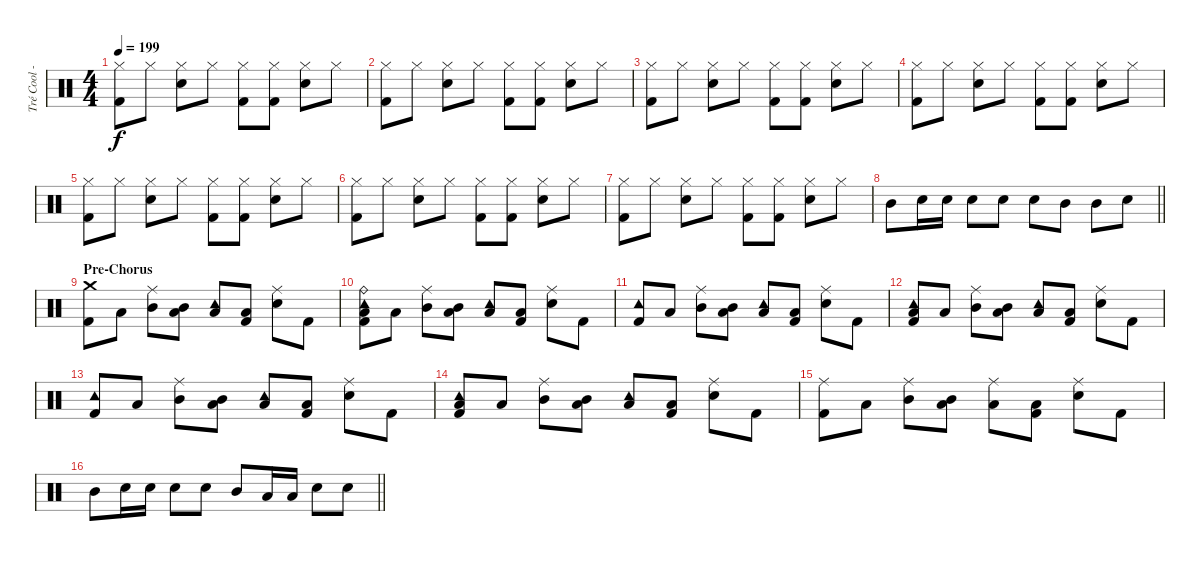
\track ("Tré Cool - Drums" "Tré Cool -") {instrument percussion}
\staff {score}
\articulation defaults
\ts (4 4)
\tempo 199
\clef neutral
\ks c
("Hi-Hat (closed)" "Kick (hit) 2").8{dy f} "Hi-Hat (closed)".8 ("Hi-Hat (closed)" "Electric Snare (hit)").8 "Hi-Hat (closed)".8 ("Hi-Hat (closed)" "Kick (hit) 2").8 ("Hi-Hat (closed)" "Kick (hit) 2").8 ("Hi-Hat (closed)" "Electric Snare (hit)").8 "Hi-Hat (closed)".8 |
("Hi-Hat (closed)" "Kick (hit) 2").8 "Hi-Hat (closed)".8 ("Hi-Hat (closed)" "Electric Snare (hit)").8 "Hi-Hat (closed)".8 ("Hi-Hat (closed)" "Kick (hit) 2").8 ("Hi-Hat (closed)" "Kick (hit) 2").8 ("Hi-Hat (closed)" "Electric Snare (hit)").8 "Hi-Hat (closed)".8 |
("Hi-Hat (closed)" "Kick (hit) 2").8 "Hi-Hat (closed)".8 ("Hi-Hat (closed)" "Electric Snare (hit)").8 "Hi-Hat (closed)".8 ("Hi-Hat (closed)" "Kick (hit) 2").8 ("Hi-Hat (closed)" "Kick (hit) 2").8 ("Hi-Hat (closed)" "Electric Snare (hit)").8 "Hi-Hat (closed)".8 |
("Hi-Hat (closed)" "Kick (hit) 2").8 "Hi-Hat (closed)".8 ("Hi-Hat (closed)" "Electric Snare (hit)").8 "Hi-Hat (closed)".8 ("Hi-Hat (closed)" "Kick (hit) 2").8 ("Hi-Hat (closed)" "Kick (hit) 2").8 ("Hi-Hat (closed)" "Electric Snare (hit)").8 "Hi-Hat (closed)".8 |
("Hi-Hat (closed)" "Kick (hit) 2").8 "Hi-Hat (closed)".8 ("Hi-Hat (closed)" "Electric Snare (hit)").8 "Hi-Hat (closed)".8 ("Hi-Hat (closed)" "Kick (hit) 2").8 ("Hi-Hat (closed)" "Kick (hit) 2").8 ("Hi-Hat (closed)" "Electric Snare (hit)").8 "Hi-Hat (closed)".8 |
("Hi-Hat (closed)" "Kick (hit) 2").8 "Hi-Hat (closed)".8 ("Hi-Hat (closed)" "Electric Snare (hit)").8 "Hi-Hat (closed)".8 ("Hi-Hat (closed)" "Kick (hit) 2").8 ("Hi-Hat (closed)" "Kick (hit) 2").8 ("Hi-Hat (closed)" "Electric Snare (hit)").8 "Hi-Hat (closed)".8 |
("Hi-Hat (closed)" "Kick (hit) 2").8 "Hi-Hat (closed)".8 ("Hi-Hat (closed)" "Electric Snare (hit)").8 "Hi-Hat (closed)".8 ("Hi-Hat (closed)" "Kick (hit) 2").8 ("Hi-Hat (closed)" "Kick (hit) 2").8 ("Hi-Hat (closed)" "Electric Snare (hit)").8 "Hi-Hat (closed)".8 |
\barLineRight lightlight "Mid Tom (hit)".8 "Electric Snare (hit)".16 "Electric Snare (hit)".16 "Electric Snare (hit)".8 "Electric Snare (hit)".8 "Electric Snare (hit)".8 "Mid Tom (hit)".8 "Mid Tom (hit)".8 "Electric Snare (hit)".8
|
\section ("" "Pre-Chorus")
("Crash medium (hit)" "Kick (hit) 2").8 "Low Floor Tom (hit)".8 ("Ride (middle)" "Mid Tom (hit)").8 ("Mid Tom (hit)" "Low Floor Tom (hit)").8 ("Tambourine (hit)" "Low Tom (hit)").8 ("Low Floor Tom (hit)" "Kick (hit) 2").8 ("Ride (middle)" "Electric Snare (hit)").8 "Kick (hit) 2".8 |
("Tambourine (hit)" "Ride (bell)" "Low Floor Tom (hit)" "Kick (hit) 2").8 "Low Floor Tom (hit)".8 ("Ride (middle)" "Mid Tom (hit)").8 ("Mid Tom (hit)" "Low Floor Tom (hit)").8 ("Tambourine (hit)" "Low Tom (hit)").8 ("Low Floor Tom (hit)" "Kick (hit) 2").8 ("Ride (middle)" "Electric Snare (hit)").8 "Kick (hit) 2".8 |
("Tambourine (hit)" "Kick (hit) 2").8 "Low Floor Tom (hit)".8 ("Ride (middle)" "Mid Tom (hit)").8 ("Mid Tom (hit)" "Low Floor Tom (hit)").8 ("Tambourine (hit)" "Low Tom (hit)").8 ("Low Floor Tom (hit)" "Kick (hit) 2").8 ("Ride (middle)" "Electric Snare (hit)").8 "Kick (hit) 2".8 |
("Tambourine (hit)" "Low Floor Tom (hit)" "Kick (hit) 2").8 "Low Floor Tom (hit)".8 ("Ride (middle)" "Mid Tom (hit)").8 ("Mid Tom (hit)" "Low Floor Tom (hit)").8 ("Tambourine (hit)" "Low Tom (hit)").8 ("Low Floor Tom (hit)" "Kick (hit) 2").8 ("Ride (middle)" "Electric Snare (hit)").8 "Kick (hit) 2".8 |
("Tambourine (hit)" "Kick (hit) 2").8 "Low Floor Tom (hit)".8 ("Ride (middle)" "Mid Tom (hit)").8 ("Mid Tom (hit)" "Low Floor Tom (hit)").8 ("Tambourine (hit)" "Low Tom (hit)").8 ("Low Floor Tom (hit)" "Kick (hit) 2").8 ("Ride (middle)" "Electric Snare (hit)").8 "Kick (hit) 2".8 |
("Tambourine (hit)" "Low Floor Tom (hit)" "Kick (hit) 2").8 "Low Floor Tom (hit)".8 ("Ride (middle)" "Mid Tom (hit)").8 ("Mid Tom (hit)" "Low Floor Tom (hit)").8 ("Tambourine (hit)" "Low Tom (hit)").8 ("Low Floor Tom (hit)" "Kick (hit) 2").8 ("Ride (middle)" "Electric Snare (hit)").8 "Kick (hit) 2".8 |
("Ride (middle)" "Kick (hit) 2").8 "Low Floor Tom (hit)".8 ("Ride (middle)" "Mid Tom (hit)").8 ("Mid Tom (hit)" "Low Floor Tom (hit)").8 ("Ride (middle)" "Low Tom (hit)").8 ("Low Floor Tom (hit)" "Kick (hit) 2").8 ("Ride (middle)" "Electric Snare (hit)").8 "Kick (hit) 2".8 |
\barLineRight lightlight "Mid Tom (hit)".8 "Electric Snare (hit)".16 "Electric Snare (hit)".16 "Electric Snare (hit)".8 "Electric Snare (hit)".8 "Mid Tom (hit)".8 "Low Tom (hit)".16 "Low Tom (hit)".16 "Electric Snare (hit)".8 "Electric Snare (hit)".8
